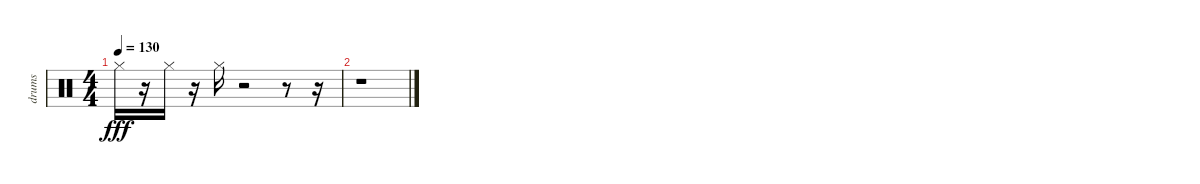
\track ("drums" "drums") {instrument percussion}
\staff {score}
\articulation defaults
\ts (4 4)
\tempo 130
\clef neutral
\ks c "Hi-Hat (closed)".16{dy fff}
r.16 "Hi-Hat (closed)".16 r.16 "Hi-Hat (closed)".16 r.2 r.8 r.16 |
r.1
